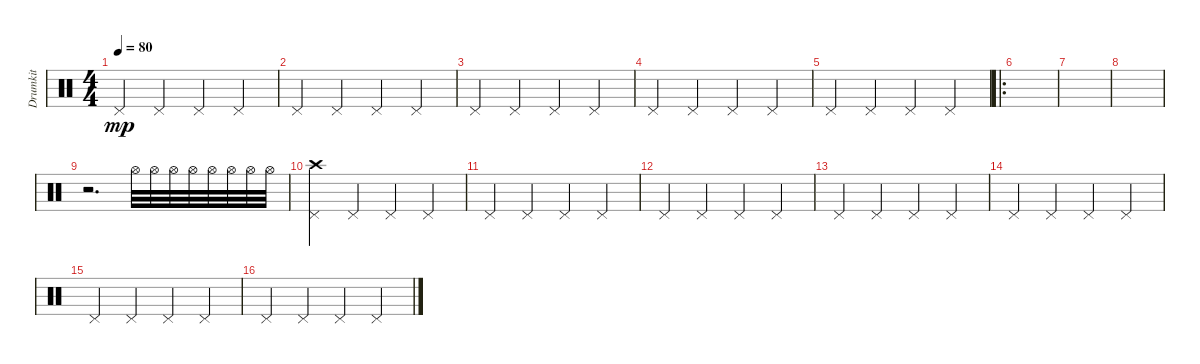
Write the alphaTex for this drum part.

\track ("Drumkit" "Drumkit") {instrument percussion}
\staff {score}
\articulation defaults
\ts (4 4)
\tempo 80
\clef neutral
\ks c "Pedal Hi-Hat (hit)".4{dy mp} "Pedal Hi-Hat (hit)".4 "Pedal Hi-Hat (hit)".4 "Pedal Hi-Hat (hit)".4
|
"Pedal Hi-Hat (hit)".4 "Pedal Hi-Hat (hit)".4 "Pedal Hi-Hat (hit)".4 "Pedal Hi-Hat (hit)".4 |
"Pedal Hi-Hat (hit)".4 "Pedal Hi-Hat (hit)".4 "Pedal Hi-Hat (hit)".4 "Pedal Hi-Hat (hit)".4 |
"Pedal Hi-Hat (hit)".4 "Pedal Hi-Hat (hit)".4 "Pedal Hi-Hat (hit)".4 "Pedal Hi-Hat (hit)".4 |
"Pedal Hi-Hat (hit)".4 "Pedal Hi-Hat (hit)".4 "Pedal Hi-Hat (hit)".4 "Pedal Hi-Hat (hit)".4 |
\ro
|
|
|
r.2{d} "Hi-Hat (open)".32 "Hi-Hat (open)".32 "Hi-Hat (open)".32 "Hi-Hat (open)".32 "Hi-Hat (open)".32 "Hi-Hat (open)".32 "Hi-Hat (open)".32 "Hi-Hat (open)".32 |
("Pedal Hi-Hat (hit)" "Crash high (hit)").4 "Pedal Hi-Hat (hit)".4 "Pedal Hi-Hat (hit)".4 "Pedal Hi-Hat (hit)".4 |
"Pedal Hi-Hat (hit)".4 "Pedal Hi-Hat (hit)".4 "Pedal Hi-Hat (hit)".4 "Pedal Hi-Hat (hit)".4 |
"Pedal Hi-Hat (hit)".4 "Pedal Hi-Hat (hit)".4 "Pedal Hi-Hat (hit)".4 "Pedal Hi-Hat (hit)".4 |
"Pedal Hi-Hat (hit)".4 "Pedal Hi-Hat (hit)".4 "Pedal Hi-Hat (hit)".4 "Pedal Hi-Hat (hit)".4 |
"Pedal Hi-Hat (hit)".4 "Pedal Hi-Hat (hit)".4 "Pedal Hi-Hat (hit)".4 "Pedal Hi-Hat (hit)".4 |
"Pedal Hi-Hat (hit)".4 "Pedal Hi-Hat (hit)".4 "Pedal Hi-Hat (hit)".4 "Pedal Hi-Hat (hit)".4 |
"Pedal Hi-Hat (hit)".4 "Pedal Hi-Hat (hit)".4 "Pedal Hi-Hat (hit)".4 "Pedal Hi-Hat (hit)".4
